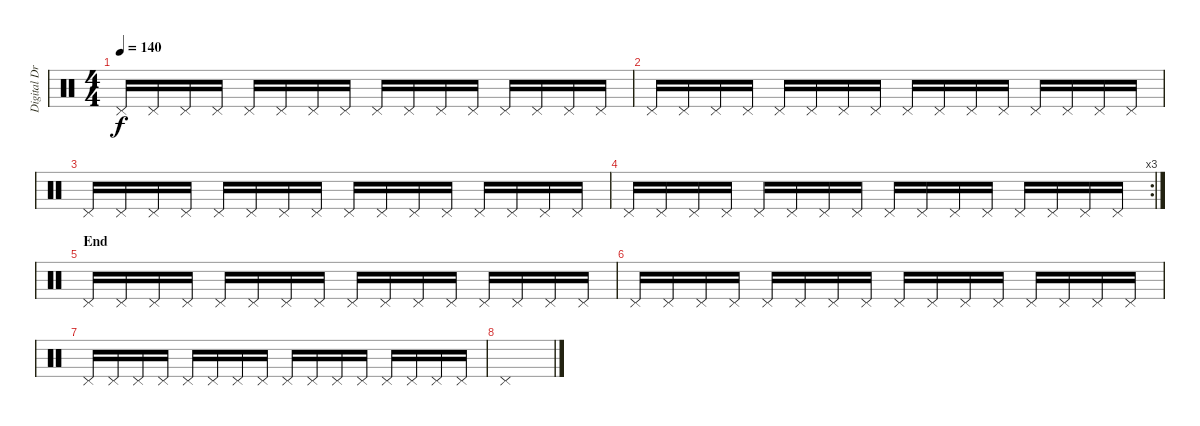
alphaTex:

\track ("Digital Drums - Vicko" "Digital Dr") {instrument percussion}
\staff {score}
\articulation defaults
\ts (4 4)
\tempo 140
\clef neutral
\ks c "Pedal Hi-Hat (hit)".16{dy f} "Pedal Hi-Hat (hit)".16 "Pedal Hi-Hat (hit)".16 "Pedal Hi-Hat (hit)".16 "Pedal Hi-Hat (hit)".16 "Pedal Hi-Hat (hit)".16 "Pedal Hi-Hat (hit)".16 "Pedal Hi-Hat (hit)".16 "Pedal Hi-Hat (hit)".16 "Pedal Hi-Hat (hit)".16 "Pedal Hi-Hat (hit)".16 "Pedal Hi-Hat (hit)".16 "Pedal Hi-Hat (hit)".16 "Pedal Hi-Hat (hit)".16 "Pedal Hi-Hat (hit)".16 "Pedal Hi-Hat (hit)".16
|
"Pedal Hi-Hat (hit)".16 "Pedal Hi-Hat (hit)".16 "Pedal Hi-Hat (hit)".16 "Pedal Hi-Hat (hit)".16 "Pedal Hi-Hat (hit)".16 "Pedal Hi-Hat (hit)".16 "Pedal Hi-Hat (hit)".16 "Pedal Hi-Hat (hit)".16 "Pedal Hi-Hat (hit)".16 "Pedal Hi-Hat (hit)".16 "Pedal Hi-Hat (hit)".16 "Pedal Hi-Hat (hit)".16 "Pedal Hi-Hat (hit)".16 "Pedal Hi-Hat (hit)".16 "Pedal Hi-Hat (hit)".16 "Pedal Hi-Hat (hit)".16 |
"Pedal Hi-Hat (hit)".16 "Pedal Hi-Hat (hit)".16 "Pedal Hi-Hat (hit)".16 "Pedal Hi-Hat (hit)".16 "Pedal Hi-Hat (hit)".16 "Pedal Hi-Hat (hit)".16 "Pedal Hi-Hat (hit)".16 "Pedal Hi-Hat (hit)".16 "Pedal Hi-Hat (hit)".16 "Pedal Hi-Hat (hit)".16 "Pedal Hi-Hat (hit)".16 "Pedal Hi-Hat (hit)".16 "Pedal Hi-Hat (hit)".16 "Pedal Hi-Hat (hit)".16 "Pedal Hi-Hat (hit)".16 "Pedal Hi-Hat (hit)".16 |
\rc 3 "Pedal Hi-Hat (hit)".16 "Pedal Hi-Hat (hit)".16 "Pedal Hi-Hat (hit)".16 "Pedal Hi-Hat (hit)".16 "Pedal Hi-Hat (hit)".16 "Pedal Hi-Hat (hit)".16 "Pedal Hi-Hat (hit)".16 "Pedal Hi-Hat (hit)".16 "Pedal Hi-Hat (hit)".16 "Pedal Hi-Hat (hit)".16 "Pedal Hi-Hat (hit)".16 "Pedal Hi-Hat (hit)".16 "Pedal Hi-Hat (hit)".16 "Pedal Hi-Hat (hit)".16 "Pedal Hi-Hat (hit)".16 "Pedal Hi-Hat (hit)".16
|
\section ("" "End")
"Pedal Hi-Hat (hit)".16 "Pedal Hi-Hat (hit)".16 "Pedal Hi-Hat (hit)".16 "Pedal Hi-Hat (hit)".16 "Pedal Hi-Hat (hit)".16 "Pedal Hi-Hat (hit)".16 "Pedal Hi-Hat (hit)".16 "Pedal Hi-Hat (hit)".16 "Pedal Hi-Hat (hit)".16 "Pedal Hi-Hat (hit)".16 "Pedal Hi-Hat (hit)".16 "Pedal Hi-Hat (hit)".16 "Pedal Hi-Hat (hit)".16 "Pedal Hi-Hat (hit)".16 "Pedal Hi-Hat (hit)".16 "Pedal Hi-Hat (hit)".16 |
"Pedal Hi-Hat (hit)".16 "Pedal Hi-Hat (hit)".16 "Pedal Hi-Hat (hit)".16 "Pedal Hi-Hat (hit)".16 "Pedal Hi-Hat (hit)".16 "Pedal Hi-Hat (hit)".16 "Pedal Hi-Hat (hit)".16 "Pedal Hi-Hat (hit)".16 "Pedal Hi-Hat (hit)".16 "Pedal Hi-Hat (hit)".16 "Pedal Hi-Hat (hit)".16 "Pedal Hi-Hat (hit)".16 "Pedal Hi-Hat (hit)".16 "Pedal Hi-Hat (hit)".16 "Pedal Hi-Hat (hit)".16 "Pedal Hi-Hat (hit)".16 |
"Pedal Hi-Hat (hit)".16 "Pedal Hi-Hat (hit)".16 "Pedal Hi-Hat (hit)".16 "Pedal Hi-Hat (hit)".16 "Pedal Hi-Hat (hit)".16 "Pedal Hi-Hat (hit)".16 "Pedal Hi-Hat (hit)".16 "Pedal Hi-Hat (hit)".16 "Pedal Hi-Hat (hit)".16 "Pedal Hi-Hat (hit)".16 "Pedal Hi-Hat (hit)".16 "Pedal Hi-Hat (hit)".16 "Pedal Hi-Hat (hit)".16 "Pedal Hi-Hat (hit)".16 "Pedal Hi-Hat (hit)".16 "Pedal Hi-Hat (hit)".16 |
"Pedal Hi-Hat (hit)".1
